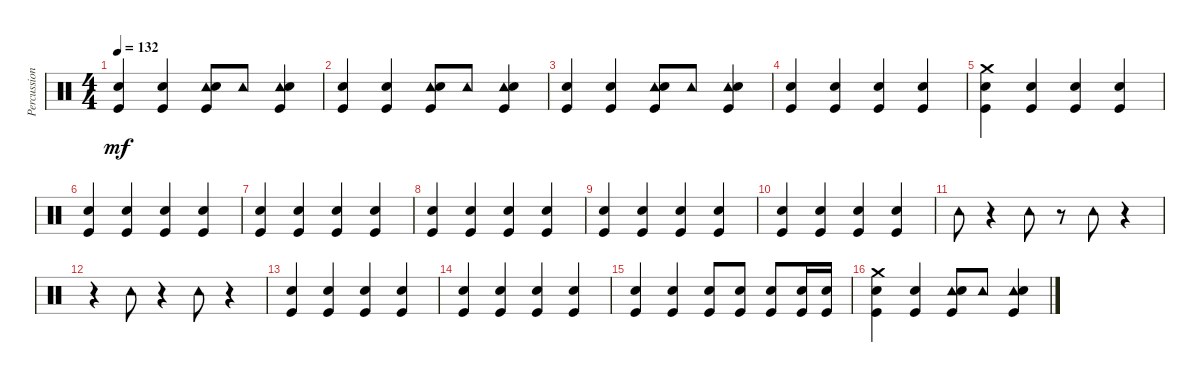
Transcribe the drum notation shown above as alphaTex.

\track ("Percussion" "Percussion") {instrument percussion}
\staff {score}
\articulation defaults
\ts (4 4)
\tempo 132
\clef neutral
\ks c
("Kick (hit)" "Snare (hit) 2").4{dy mf} ("Snare (hit) 2" "Kick (hit)").4 ("Tambourine (hit)" "Snare (hit) 2" "Kick (hit)").8 "Tambourine (hit)".8 ("Tambourine (hit)" "Snare (hit) 2" "Kick (hit)").4 |
("Snare (hit) 2" "Kick (hit)").4 ("Kick (hit)" "Snare (hit) 2").4 ("Tambourine (hit)" "Kick (hit)" "Snare (hit) 2").8 "Tambourine (hit)".8 ("Tambourine (hit)" "Kick (hit)" "Snare (hit) 2").4 |
("Kick (hit)" "Snare (hit) 2").4 ("Kick (hit)" "Snare (hit) 2").4 ("Tambourine (hit)" "Kick (hit)" "Snare (hit) 2").8 "Tambourine (hit)".8 ("Tambourine (hit)" "Kick (hit)" "Snare (hit) 2").4 |
("Kick (hit)" "Snare (hit) 2").4 ("Snare (hit) 2" "Kick (hit)").4 ("Kick (hit)" "Snare (hit) 2").4 ("Snare (hit) 2" "Kick (hit)").4 |
("Crash medium (hit)" "Kick (hit)" "Snare (hit) 2").4 ("Snare (hit) 2" "Kick (hit)").4 ("Snare (hit) 2" "Kick (hit)").4 ("Snare (hit) 2" "Kick (hit)").4 |
("Snare (hit) 2" "Kick (hit)").4 ("Kick (hit)" "Snare (hit) 2").4 ("Kick (hit)" "Snare (hit) 2").4 ("Kick (hit)" "Snare (hit) 2").4 |
("Kick (hit)" "Snare (hit) 2").4 ("Kick (hit)" "Snare (hit) 2").4 ("Kick (hit)" "Snare (hit) 2").4 ("Kick (hit)" "Snare (hit) 2").4 |
("Kick (hit)" "Snare (hit) 2").4 ("Snare (hit) 2" "Kick (hit)").4 ("Kick (hit)" "Snare (hit) 2").4 ("Snare (hit) 2" "Kick (hit)").4 |
("Kick (hit)" "Snare (hit) 2").4 ("Snare (hit) 2" "Kick (hit)").4 ("Snare (hit) 2" "Kick (hit)").4 ("Snare (hit) 2" "Kick (hit)").4 |
("Snare (hit) 2" "Kick (hit)").4 ("Kick (hit)" "Snare (hit) 2").4 ("Kick (hit)" "Snare (hit) 2").4 ("Kick (hit)" "Snare (hit) 2").4 |
"Tambourine (hit)".8 r.4 "Tambourine (hit)".8 r.8 "Tambourine (hit)".8 r.4 |
r.4 "Tambourine (hit)".8 r.4 "Tambourine (hit)".8 r.4 |
("Snare (hit) 2" "Kick (hit)").4 ("Snare (hit) 2" "Kick (hit)").4 ("Snare (hit) 2" "Kick (hit)").4 ("Kick (hit)" "Snare (hit) 2").4 |
("Kick (hit)" "Snare (hit) 2").4 ("Kick (hit)" "Snare (hit) 2").4 ("Kick (hit)" "Snare (hit) 2").4 ("Kick (hit)" "Snare (hit) 2").4 |
("Kick (hit)" "Snare (hit) 2").4 ("Kick (hit)" "Snare (hit) 2").4 ("Kick (hit)" "Snare (hit) 2").8 ("Kick (hit)" "Snare (hit) 2").8 ("Kick (hit)" "Snare (hit) 2").8 ("Kick (hit)" "Snare (hit) 2").16 ("Kick (hit)" "Snare (hit) 2").16 |
("Crash medium (hit)" "Kick (hit)" "Snare (hit) 2").4 ("Snare (hit) 2" "Kick (hit)").4 ("Tambourine (hit)" "Snare (hit) 2" "Kick (hit)").8 "Tambourine (hit)".8 ("Tambourine (hit)" "Snare (hit) 2" "Kick (hit)").4
